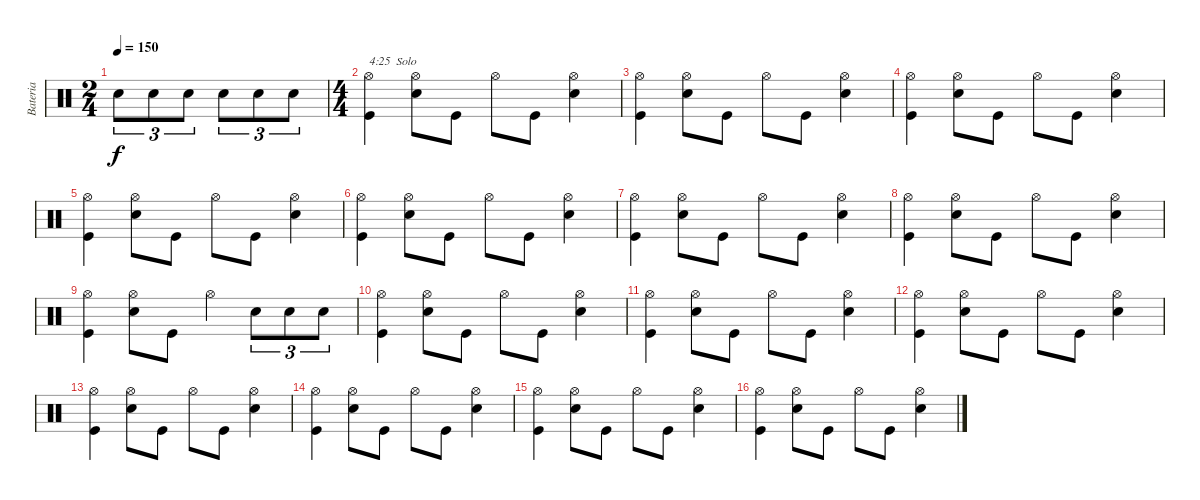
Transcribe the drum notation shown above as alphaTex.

\track ("Bateria" "Bateria") {instrument percussion}
\staff {score}
\articulation defaults
\ts (2 4)
\tempo 150
\clef neutral
\ks c "Snare (hit) 2".8{tu (3 2) dy f} "Snare (hit) 2".8{tu (3 2)} "Snare (hit) 2".8{tu (3 2)} "Snare (hit) 2".8{tu (3 2)} "Snare (hit) 2".8{tu (3 2)} "Snare (hit) 2".8{tu (3 2)}
|
\ts (4 4)
("Kick (hit)" "Hi-Hat (open)").4{txt "4:25  Solo"} ("Snare (hit) 2" "Hi-Hat (open)").8 "Kick (hit)".8 "Hi-Hat (open)".8 "Kick (hit)".8 ("Snare (hit) 2" "Hi-Hat (open)").4 |
("Kick (hit)" "Hi-Hat (open)").4 ("Snare (hit) 2" "Hi-Hat (open)").8 "Kick (hit)".8 "Hi-Hat (open)".8 "Kick (hit)".8 ("Snare (hit) 2" "Hi-Hat (open)").4 |
("Kick (hit)" "Hi-Hat (open)").4 ("Snare (hit) 2" "Hi-Hat (open)").8 "Kick (hit)".8 "Hi-Hat (open)".8 "Kick (hit)".8 ("Snare (hit) 2" "Hi-Hat (open)").4 |
("Kick (hit)" "Hi-Hat (open)").4 ("Snare (hit) 2" "Hi-Hat (open)").8 "Kick (hit)".8 "Hi-Hat (open)".8 "Kick (hit)".8 ("Snare (hit) 2" "Hi-Hat (open)").4 |
("Kick (hit)" "Hi-Hat (open)").4 ("Snare (hit) 2" "Hi-Hat (open)").8 "Kick (hit)".8 "Hi-Hat (open)".8 "Kick (hit)".8 ("Snare (hit) 2" "Hi-Hat (open)").4 |
("Kick (hit)" "Hi-Hat (open)").4 ("Snare (hit) 2" "Hi-Hat (open)").8 "Kick (hit)".8 "Hi-Hat (open)".8 "Kick (hit)".8 ("Snare (hit) 2" "Hi-Hat (open)").4 |
("Kick (hit)" "Hi-Hat (open)").4 ("Snare (hit) 2" "Hi-Hat (open)").8 "Kick (hit)".8 "Hi-Hat (open)".8 "Kick (hit)".8 ("Snare (hit) 2" "Hi-Hat (open)").4 |
("Kick (hit)" "Hi-Hat (open)").4 ("Snare (hit) 2" "Hi-Hat (open)").8 "Kick (hit)".8 "Hi-Hat (open)".4 "Snare (hit) 2".8{tu (3 2)} "Snare (hit) 2".8{tu (3 2)} "Snare (hit) 2".8{tu (3 2)} |
("Kick (hit)" "Hi-Hat (open)").4 ("Snare (hit) 2" "Hi-Hat (open)").8 "Kick (hit)".8 "Hi-Hat (open)".8 "Kick (hit)".8 ("Snare (hit) 2" "Hi-Hat (open)").4 |
("Kick (hit)" "Hi-Hat (open)").4 ("Snare (hit) 2" "Hi-Hat (open)").8 "Kick (hit)".8 "Hi-Hat (open)".8 "Kick (hit)".8 ("Snare (hit) 2" "Hi-Hat (open)").4 |
("Kick (hit)" "Hi-Hat (open)").4 ("Snare (hit) 2" "Hi-Hat (open)").8 "Kick (hit)".8 "Hi-Hat (open)".8 "Kick (hit)".8 ("Snare (hit) 2" "Hi-Hat (open)").4 |
("Kick (hit)" "Hi-Hat (open)").4 ("Snare (hit) 2" "Hi-Hat (open)").8 "Kick (hit)".8 "Hi-Hat (open)".8 "Kick (hit)".8 ("Snare (hit) 2" "Hi-Hat (open)").4 |
("Kick (hit)" "Hi-Hat (open)").4 ("Snare (hit) 2" "Hi-Hat (open)").8 "Kick (hit)".8 "Hi-Hat (open)".8 "Kick (hit)".8 ("Snare (hit) 2" "Hi-Hat (open)").4 |
("Kick (hit)" "Hi-Hat (open)").4 ("Snare (hit) 2" "Hi-Hat (open)").8 "Kick (hit)".8 "Hi-Hat (open)".8 "Kick (hit)".8 ("Snare (hit) 2" "Hi-Hat (open)").4 |
("Kick (hit)" "Hi-Hat (open)").4 ("Snare (hit) 2" "Hi-Hat (open)").8 "Kick (hit)".8 "Hi-Hat (open)".8 "Kick (hit)".8 ("Snare (hit) 2" "Hi-Hat (open)").4
